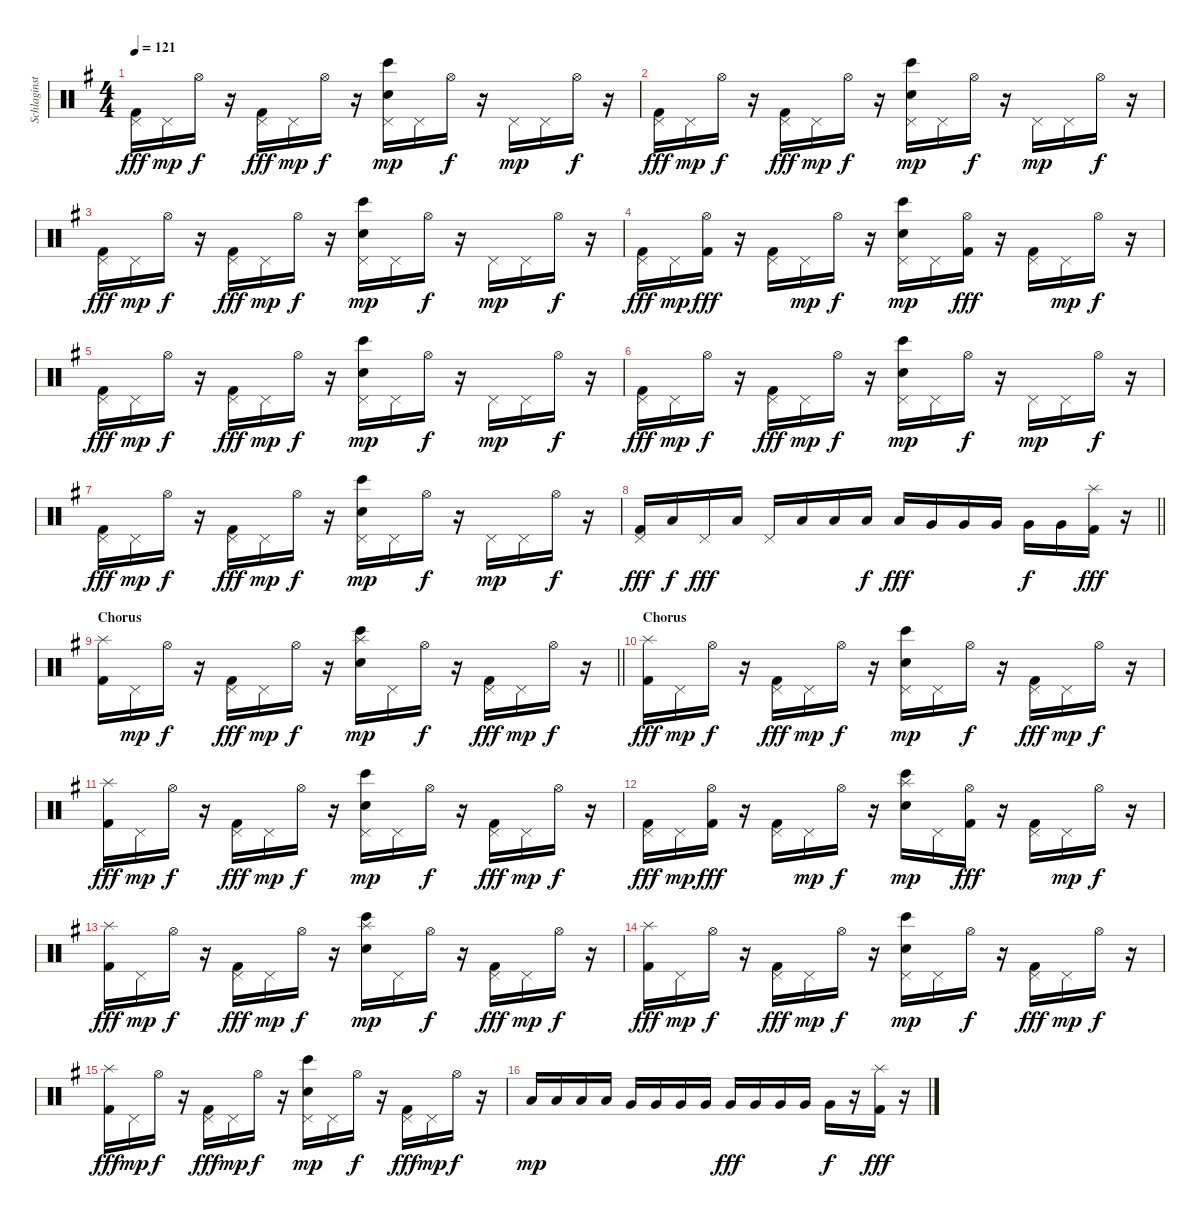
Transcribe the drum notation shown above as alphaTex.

\track ("Schlaginstrumente - Auswahl" "Schlaginst") {instrument percussion}
\staff {score}
\articulation defaults
\ts (4 4)
\tempo 121
\clef neutral
\ks g
("Pedal Hi-Hat (hit)" "Kick (hit) 2").16{dy fff} "Pedal Hi-Hat (hit)".16{dy mp} "Hi-Hat (open)".16{dy f} r.16 ("Pedal Hi-Hat (hit)" "Kick (hit) 2").16{dy fff} "Pedal Hi-Hat (hit)".16{dy mp} "Hi-Hat (open)".16{dy f} r.16 ("Bongo High (hit)" "Pedal Hi-Hat (hit)" "Electric Snare (hit)").16{dy mp} "Pedal Hi-Hat (hit)".16 "Hi-Hat (open)".16{dy f} r.16 "Pedal Hi-Hat (hit)".16{dy mp} "Pedal Hi-Hat (hit)".16 "Hi-Hat (open)".16{dy f} r.16 |
("Pedal Hi-Hat (hit)" "Kick (hit) 2").16{dy fff} "Pedal Hi-Hat (hit)".16{dy mp} "Hi-Hat (open)".16{dy f} r.16 ("Pedal Hi-Hat (hit)" "Kick (hit) 2").16{dy fff} "Pedal Hi-Hat (hit)".16{dy mp} "Hi-Hat (open)".16{dy f} r.16 ("Bongo High (hit)" "Pedal Hi-Hat (hit)" "Electric Snare (hit)").16{dy mp} "Pedal Hi-Hat (hit)".16 "Hi-Hat (open)".16{dy f} r.16 "Pedal Hi-Hat (hit)".16{dy mp} "Pedal Hi-Hat (hit)".16 "Hi-Hat (open)".16{dy f} r.16 |
("Pedal Hi-Hat (hit)" "Kick (hit) 2").16{dy fff} "Pedal Hi-Hat (hit)".16{dy mp} "Hi-Hat (open)".16{dy f} r.16 ("Pedal Hi-Hat (hit)" "Kick (hit) 2").16{dy fff} "Pedal Hi-Hat (hit)".16{dy mp} "Hi-Hat (open)".16{dy f} r.16 ("Bongo High (hit)" "Pedal Hi-Hat (hit)" "Electric Snare (hit)").16{dy mp} "Pedal Hi-Hat (hit)".16 "Hi-Hat (open)".16{dy f} r.16 "Pedal Hi-Hat (hit)".16{dy mp} "Pedal Hi-Hat (hit)".16 "Hi-Hat (open)".16{dy f} r.16 |
("Pedal Hi-Hat (hit)" "Kick (hit) 2").16{dy fff} "Pedal Hi-Hat (hit)".16{dy mp} ("Hi-Hat (open)" "Kick (hit) 2").16{dy fff} r.16 ("Pedal Hi-Hat (hit)" "Kick (hit) 2").16 "Pedal Hi-Hat (hit)".16{dy mp} "Hi-Hat (open)".16{dy f} r.16 ("Bongo High (hit)" "Pedal Hi-Hat (hit)" "Electric Snare (hit)").16{dy mp} "Pedal Hi-Hat (hit)".16 ("Hi-Hat (open)" "Kick (hit) 2").16{dy fff} r.16 ("Pedal Hi-Hat (hit)" "Kick (hit) 2").16 "Pedal Hi-Hat (hit)".16{dy mp} "Hi-Hat (open)".16{dy f} r.16 |
("Pedal Hi-Hat (hit)" "Kick (hit) 2").16{dy fff} "Pedal Hi-Hat (hit)".16{dy mp} "Hi-Hat (open)".16{dy f} r.16 ("Pedal Hi-Hat (hit)" "Kick (hit) 2").16{dy fff} "Pedal Hi-Hat (hit)".16{dy mp} "Hi-Hat (open)".16{dy f} r.16 ("Bongo High (hit)" "Pedal Hi-Hat (hit)" "Electric Snare (hit)").16{dy mp} "Pedal Hi-Hat (hit)".16 "Hi-Hat (open)".16{dy f} r.16 "Pedal Hi-Hat (hit)".16{dy mp} "Pedal Hi-Hat (hit)".16 "Hi-Hat (open)".16{dy f} r.16 |
("Pedal Hi-Hat (hit)" "Kick (hit) 2").16{dy fff} "Pedal Hi-Hat (hit)".16{dy mp} "Hi-Hat (open)".16{dy f} r.16 ("Pedal Hi-Hat (hit)" "Kick (hit) 2").16{dy fff} "Pedal Hi-Hat (hit)".16{dy mp} "Hi-Hat (open)".16{dy f} r.16 ("Bongo High (hit)" "Pedal Hi-Hat (hit)" "Electric Snare (hit)").16{dy mp} "Pedal Hi-Hat (hit)".16 "Hi-Hat (open)".16{dy f} r.16 "Pedal Hi-Hat (hit)".16{dy mp} "Pedal Hi-Hat (hit)".16 "Hi-Hat (open)".16{dy f} r.16 |
("Pedal Hi-Hat (hit)" "Kick (hit) 2").16{dy fff} "Pedal Hi-Hat (hit)".16{dy mp} "Hi-Hat (open)".16{dy f} r.16 ("Pedal Hi-Hat (hit)" "Kick (hit) 2").16{dy fff} "Pedal Hi-Hat (hit)".16{dy mp} "Hi-Hat (open)".16{dy f} r.16 ("Bongo High (hit)" "Pedal Hi-Hat (hit)" "Electric Snare (hit)").16{dy mp} "Pedal Hi-Hat (hit)".16 "Hi-Hat (open)".16{dy f} r.16 "Pedal Hi-Hat (hit)".16{dy mp} "Pedal Hi-Hat (hit)".16 "Hi-Hat (open)".16{dy f} r.16 |
\barLineRight lightlight
("Pedal Hi-Hat (hit)" "Kick (hit) 2").16{dy fff} "Low Floor Tom (hit)".16{dy f} "Pedal Hi-Hat (hit)".16{dy fff} "Low Floor Tom (hit)".16 "Pedal Hi-Hat (hit)".16 "Low Tom (hit)".16 "Low Tom (hit)".16 "Low Tom (hit)".16{dy f} "Low Tom (hit)".16{dy fff} "Very Low Tom (hit)".16 "Very Low Tom (hit)".16 "Very Low Tom (hit)".16 "Very Low Tom (hit)".16{dy f} "Very Low Tom (hit)".16 ("Splash (hit)" "Kick (hit) 2").16{dy fff} r.16 |
\section ("" "Chorus")
\barLineRight lightlight
("Splash (hit)" "Kick (hit) 2").16 "Pedal Hi-Hat (hit)".16{dy mp} "Hi-Hat (open)".16{dy f} r.16 ("Pedal Hi-Hat (hit)" "Kick (hit) 2").16{dy fff} "Pedal Hi-Hat (hit)".16{dy mp} "Hi-Hat (open)".16{dy f} r.16 ("Bongo High (hit)" "Splash (hit)" "Electric Snare (hit)").16{dy mp} "Pedal Hi-Hat (hit)".16 "Hi-Hat (open)".16{dy f} r.16 ("Pedal Hi-Hat (hit)" "Kick (hit) 2").16{dy fff} "Pedal Hi-Hat (hit)".16{dy mp} "Hi-Hat (open)".16{dy f} r.16 |
\section ("" "Chorus")
("Splash (hit)" "Kick (hit) 2").16{dy fff} "Pedal Hi-Hat (hit)".16{dy mp} "Hi-Hat (open)".16{dy f} r.16 ("Pedal Hi-Hat (hit)" "Kick (hit) 2").16{dy fff} "Pedal Hi-Hat (hit)".16{dy mp} "Hi-Hat (open)".16{dy f} r.16 ("Bongo High (hit)" "Pedal Hi-Hat (hit)" "Electric Snare (hit)").16{dy mp} "Pedal Hi-Hat (hit)".16 "Hi-Hat (open)".16{dy f} r.16 ("Pedal Hi-Hat (hit)" "Kick (hit) 2").16{dy fff} "Pedal Hi-Hat (hit)".16{dy mp} "Hi-Hat (open)".16{dy f} r.16 |
("Splash (hit)" "Kick (hit) 2").16{dy fff} "Pedal Hi-Hat (hit)".16{dy mp} "Hi-Hat (open)".16{dy f} r.16 ("Pedal Hi-Hat (hit)" "Kick (hit) 2").16{dy fff} "Pedal Hi-Hat (hit)".16{dy mp} "Hi-Hat (open)".16{dy f} r.16 ("Bongo High (hit)" "Pedal Hi-Hat (hit)" "Electric Snare (hit)").16{dy mp} "Pedal Hi-Hat (hit)".16 "Hi-Hat (open)".16{dy f} r.16 ("Pedal Hi-Hat (hit)" "Kick (hit) 2").16{dy fff} "Pedal Hi-Hat (hit)".16{dy mp} "Hi-Hat (open)".16{dy f} r.16 |
("Pedal Hi-Hat (hit)" "Kick (hit) 2").16{dy fff} "Pedal Hi-Hat (hit)".16{dy mp} ("Hi-Hat (open)" "Kick (hit) 2").16{dy fff} r.16 ("Pedal Hi-Hat (hit)" "Kick (hit) 2").16 "Pedal Hi-Hat (hit)".16{dy mp} "Hi-Hat (open)".16{dy f} r.16 ("Bongo High (hit)" "Splash (hit)" "Electric Snare (hit)").16{dy mp} "Pedal Hi-Hat (hit)".16 ("Hi-Hat (open)" "Kick (hit) 2").16{dy fff} r.16 ("Pedal Hi-Hat (hit)" "Kick (hit) 2").16 "Pedal Hi-Hat (hit)".16{dy mp} "Hi-Hat (open)".16{dy f} r.16 |
("Splash (hit)" "Kick (hit) 2").16{dy fff} "Pedal Hi-Hat (hit)".16{dy mp} "Hi-Hat (open)".16{dy f} r.16 ("Pedal Hi-Hat (hit)" "Kick (hit) 2").16{dy fff} "Pedal Hi-Hat (hit)".16{dy mp} "Hi-Hat (open)".16{dy f} r.16 ("Bongo High (hit)" "Splash (hit)" "Electric Snare (hit)").16{dy mp} "Pedal Hi-Hat (hit)".16 "Hi-Hat (open)".16{dy f} r.16 ("Pedal Hi-Hat (hit)" "Kick (hit) 2").16{dy fff} "Pedal Hi-Hat (hit)".16{dy mp} "Hi-Hat (open)".16{dy f} r.16 |
("Splash (hit)" "Kick (hit) 2").16{dy fff} "Pedal Hi-Hat (hit)".16{dy mp} "Hi-Hat (open)".16{dy f} r.16 ("Pedal Hi-Hat (hit)" "Kick (hit) 2").16{dy fff} "Pedal Hi-Hat (hit)".16{dy mp} "Hi-Hat (open)".16{dy f} r.16 ("Bongo High (hit)" "Pedal Hi-Hat (hit)" "Electric Snare (hit)").16{dy mp} "Pedal Hi-Hat (hit)".16 "Hi-Hat (open)".16{dy f} r.16 ("Pedal Hi-Hat (hit)" "Kick (hit) 2").16{dy fff} "Pedal Hi-Hat (hit)".16{dy mp} "Hi-Hat (open)".16{dy f} r.16 |
("Splash (hit)" "Kick (hit) 2").16{dy fff} "Pedal Hi-Hat (hit)".16{dy mp} "Hi-Hat (open)".16{dy f} r.16 ("Pedal Hi-Hat (hit)" "Kick (hit) 2").16{dy fff} "Pedal Hi-Hat (hit)".16{dy mp} "Hi-Hat (open)".16{dy f} r.16 ("Bongo High (hit)" "Pedal Hi-Hat (hit)" "Electric Snare (hit)").16{dy mp} "Pedal Hi-Hat (hit)".16 "Hi-Hat (open)".16{dy f} r.16 ("Pedal Hi-Hat (hit)" "Kick (hit) 2").16{dy fff} "Pedal Hi-Hat (hit)".16{dy mp} "Hi-Hat (open)".16{dy f} r.16 |
"Low Tom (hit)".16{dy mp} "Low Tom (hit)".16 "Low Tom (hit)".16 "Low Tom (hit)".16 "Very Low Tom (hit)".16 "Very Low Tom (hit)".16 "Very Low Tom (hit)".16 "Very Low Tom (hit)".16 "Very Low Tom (hit)".16{dy fff} "Very Low Tom (hit)".16 "Very Low Tom (hit)".16 "Very Low Tom (hit)".16 "Very Low Tom (hit)".16{dy f} r.16 ("Splash (hit)" "Kick (hit) 2").16{dy fff} r.16
